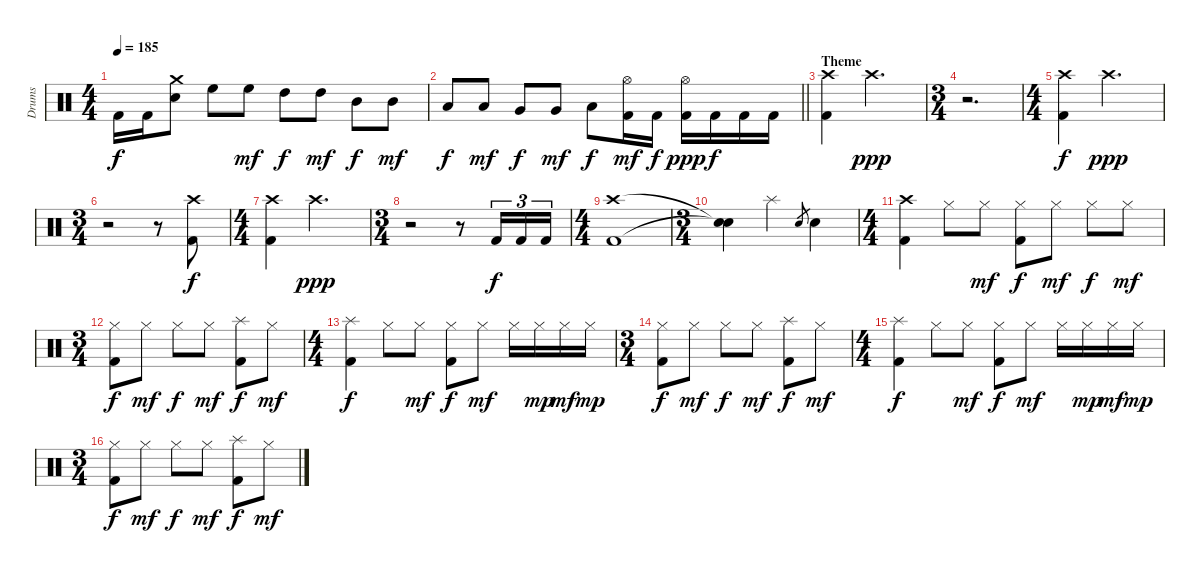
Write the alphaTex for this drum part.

\track ("Drums" "Drums") {instrument percussion}
\staff {score}
\articulation defaults
\ts (4 4)
\tempo 185
\clef neutral
\ks c "Kick (hit) 2".16{dy f} "Kick (hit) 2".16
("Crash medium (hit)" "Electric Snare (hit)").8 "High Floor Tom (hit)".8 "High Floor Tom (hit)".8{dy mf} "High Tom (hit)".8{dy f} "High Tom (hit)".8{dy mf} "Mid Tom (hit)".8{dy f} "Mid Tom (hit)".8{dy mf} |
\barLineRight lightlight "Low Tom (hit)".8{dy f} "Low Tom (hit)".8{dy mf} "Very Low Tom (hit)".8{dy f} "Very Low Tom (hit)".8{dy mf} "Low Floor Tom (hit)".8{dy f}
("Kick (hit) 2" "Hi-Hat (open)").16{dy mf} "Kick (hit) 2".16{dy f} ("Kick (hit) 2" "Hi-Hat (open)").16{dy ppp} "Kick (hit) 2".16{dy f} "Kick (hit) 2".16 "Kick (hit) 2".16 |
\section ("" "Theme")
("Kick (hit) 2" "Crash high (hit)").4 "Crash high (hit)".2{d dy ppp} |
\ts (3 4)
r.2{d} |
\ts (4 4)
("Kick (hit) 2" "Crash high (hit)").4{dy f} "Crash high (hit)".2{d dy ppp} |
\ts (3 4)
r.2 r.8 ("Kick (hit) 2" "Crash high (hit)").8{dy f} |
\ts (4 4)
("Kick (hit) 2" "Crash high (hit)").4 "Crash high (hit)".2{d dy ppp} |
\ts (3 4)
r.2 r.8 "Kick (hit) 2".16{tu (3 2) dy f} "Kick (hit) 2".16{tu (3 2)} "Kick (hit) 2".16{tu (3 2)} |
\ts (4 4)
("Kick (hit) 2" "Crash high (hit)").1 |
\ts (3 4)
("Snare (hit)"{t} "Snare (hit)"{t}).4 "Splash (hit)".4 "Electric Snare (hit)".8{gr} "Electric Snare (hit)".4 |
\ts (4 4)
("Kick (hit) 2" "Crash high (hit)").4 "Hi-Hat (closed)".8 "Hi-Hat (closed)".8{dy mf} ("Kick (hit) 2" "Hi-Hat (closed)").8{dy f} "Hi-Hat (closed)".8{dy mf} "Hi-Hat (closed)".8{dy f} "Hi-Hat (closed)".8{dy mf} |
\ts (3 4)
("Kick (hit) 2" "Hi-Hat (closed)").8{dy f} "Hi-Hat (closed)".8{dy mf} "Hi-Hat (closed)".8{dy f} "Hi-Hat (closed)".8{dy mf} ("Kick (hit) 2" "Splash (hit)").8{dy f} "Hi-Hat (closed)".8{dy mf} |
\ts (4 4)
("Kick (hit) 2" "Splash (hit)").4{dy f} "Hi-Hat (closed)".8 "Hi-Hat (closed)".8{dy mf} ("Kick (hit) 2" "Hi-Hat (closed)").8{dy f} "Hi-Hat (closed)".8{dy mf} "Hi-Hat (closed)".16 "Hi-Hat (closed)".16{dy mp} "Hi-Hat (closed)".16{dy mf} "Hi-Hat (closed)".16{dy mp} |
\ts (3 4)
("Kick (hit) 2" "Hi-Hat (closed)").8{dy f} "Hi-Hat (closed)".8{dy mf} "Hi-Hat (closed)".8{dy f} "Hi-Hat (closed)".8{dy mf} ("Kick (hit) 2" "Splash (hit)").8{dy f} "Hi-Hat (closed)".8{dy mf} |
\ts (4 4)
("Kick (hit) 2" "Splash (hit)").4{dy f} "Hi-Hat (closed)".8 "Hi-Hat (closed)".8{dy mf} ("Kick (hit) 2" "Hi-Hat (closed)").8{dy f} "Hi-Hat (closed)".8{dy mf} "Hi-Hat (closed)".16 "Hi-Hat (closed)".16{dy mp} "Hi-Hat (closed)".16{dy mf} "Hi-Hat (closed)".16{dy mp} |
\ts (3 4)
("Kick (hit) 2" "Hi-Hat (closed)").8{dy f} "Hi-Hat (closed)".8{dy mf} "Hi-Hat (closed)".8{dy f} "Hi-Hat (closed)".8{dy mf} ("Kick (hit) 2" "Splash (hit)").8{dy f} "Hi-Hat (closed)".8{dy mf}
